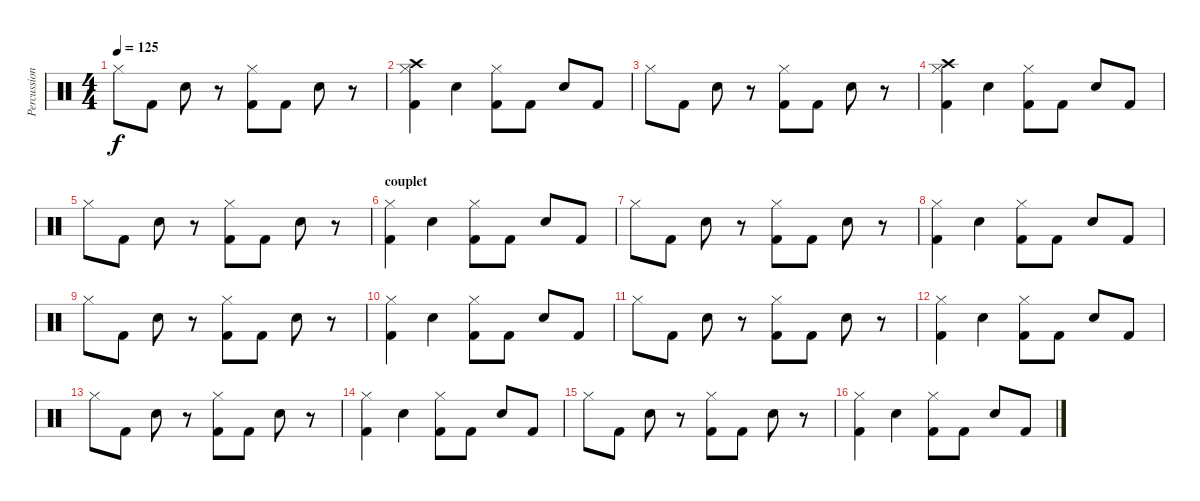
\track ("Percussions" "Percussion") {instrument percussion}
\staff {score}
\articulation defaults
\ts (4 4)
\tempo 125
\clef neutral
\ks c "Hi-Hat (closed)".8{dy f} "Kick (hit) 2".8 "Snare (hit) 2".8
r.8 ("Hi-Hat (closed)" "Kick (hit) 2").8 "Kick (hit) 2".8 "Snare (hit) 2".8 r.8 |
("Crash high (hit)" "Hi-Hat (closed)" "Kick (hit) 2").4 "Snare (hit) 2".4 ("Hi-Hat (closed)" "Kick (hit) 2").8 "Kick (hit) 2".8 "Snare (hit) 2".8 "Kick (hit) 2".8 |
"Hi-Hat (closed)".8 "Kick (hit) 2".8 "Snare (hit) 2".8 r.8 ("Hi-Hat (closed)" "Kick (hit) 2").8 "Kick (hit) 2".8 "Snare (hit) 2".8 r.8 |
("Crash high (hit)" "Hi-Hat (closed)" "Kick (hit) 2").4 "Snare (hit) 2".4 ("Hi-Hat (closed)" "Kick (hit) 2").8 "Kick (hit) 2".8 "Snare (hit) 2".8 "Kick (hit) 2".8 |
"Hi-Hat (closed)".8 "Kick (hit) 2".8 "Snare (hit) 2".8 r.8 ("Hi-Hat (closed)" "Kick (hit) 2").8 "Kick (hit) 2".8 "Snare (hit) 2".8 r.8 |
\section ("" "couplet")
("Hi-Hat (closed)" "Kick (hit) 2").4 "Snare (hit) 2".4 ("Hi-Hat (closed)" "Kick (hit) 2").8 "Kick (hit) 2".8 "Snare (hit) 2".8 "Kick (hit) 2".8 |
"Hi-Hat (closed)".8 "Kick (hit) 2".8 "Snare (hit) 2".8 r.8 ("Hi-Hat (closed)" "Kick (hit) 2").8 "Kick (hit) 2".8 "Snare (hit) 2".8 r.8 |
("Hi-Hat (closed)" "Kick (hit) 2").4 "Snare (hit) 2".4 ("Hi-Hat (closed)" "Kick (hit) 2").8 "Kick (hit) 2".8 "Snare (hit) 2".8 "Kick (hit) 2".8 |
"Hi-Hat (closed)".8 "Kick (hit) 2".8 "Snare (hit) 2".8 r.8 ("Hi-Hat (closed)" "Kick (hit) 2").8 "Kick (hit) 2".8 "Snare (hit) 2".8 r.8 |
("Hi-Hat (closed)" "Kick (hit) 2").4 "Snare (hit) 2".4 ("Hi-Hat (closed)" "Kick (hit) 2").8 "Kick (hit) 2".8 "Snare (hit) 2".8 "Kick (hit) 2".8 |
"Hi-Hat (closed)".8 "Kick (hit) 2".8 "Snare (hit) 2".8 r.8 ("Hi-Hat (closed)" "Kick (hit) 2").8 "Kick (hit) 2".8 "Snare (hit) 2".8 r.8 |
("Hi-Hat (closed)" "Kick (hit) 2").4 "Snare (hit) 2".4 ("Hi-Hat (closed)" "Kick (hit) 2").8 "Kick (hit) 2".8 "Snare (hit) 2".8 "Kick (hit) 2".8 |
"Hi-Hat (closed)".8 "Kick (hit) 2".8 "Snare (hit) 2".8 r.8 ("Hi-Hat (closed)" "Kick (hit) 2").8 "Kick (hit) 2".8 "Snare (hit) 2".8 r.8 |
("Hi-Hat (closed)" "Kick (hit) 2").4 "Snare (hit) 2".4 ("Hi-Hat (closed)" "Kick (hit) 2").8 "Kick (hit) 2".8 "Snare (hit) 2".8 "Kick (hit) 2".8 |
"Hi-Hat (closed)".8 "Kick (hit) 2".8 "Snare (hit) 2".8 r.8 ("Hi-Hat (closed)" "Kick (hit) 2").8 "Kick (hit) 2".8 "Snare (hit) 2".8 r.8 |
("Hi-Hat (closed)" "Kick (hit) 2").4 "Snare (hit) 2".4 ("Hi-Hat (closed)" "Kick (hit) 2").8 "Kick (hit) 2".8 "Snare (hit) 2".8 "Kick (hit) 2".8
